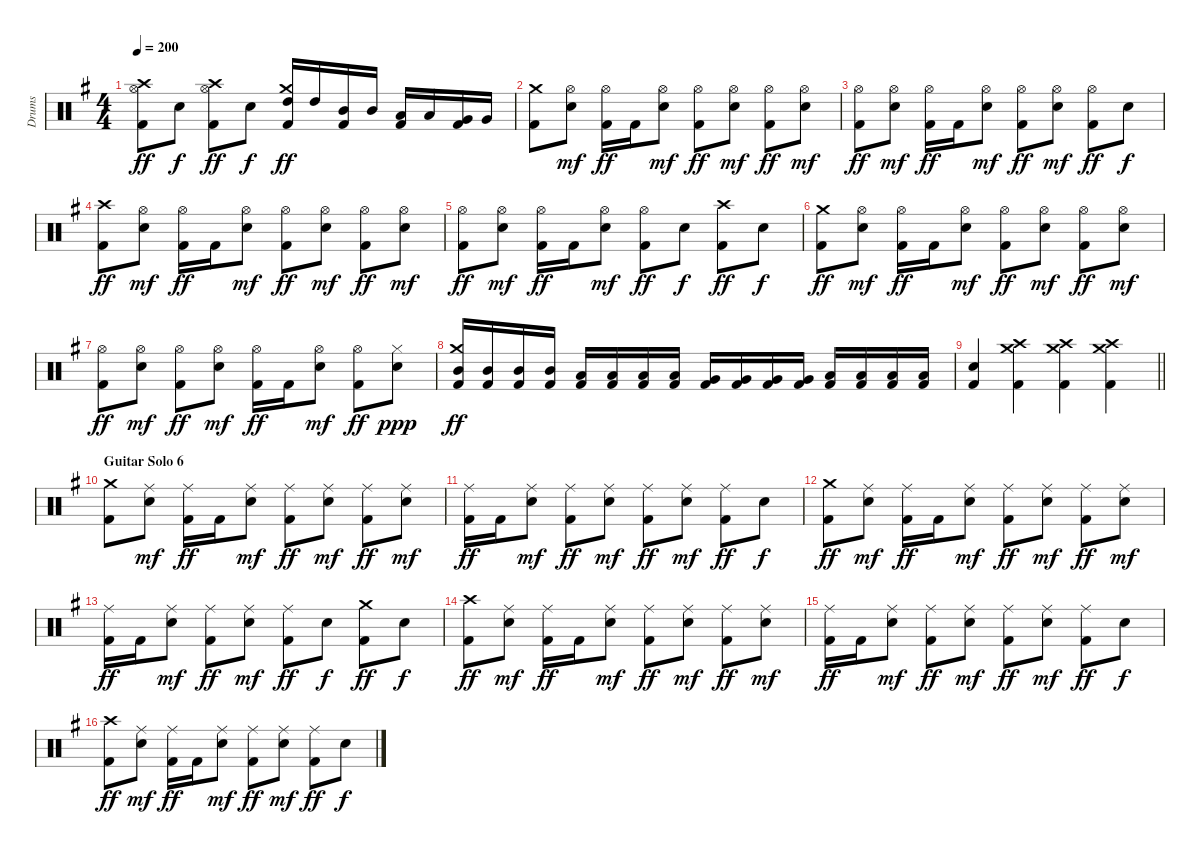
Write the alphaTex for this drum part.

\track ("Drums" "Drums") {instrument percussion}
\staff {score}
\articulation defaults
\ts (4 4)
\tempo 200
\clef neutral
\ks g
("Crash high (hit)" "Hi-Hat (open)" "Kick (hit) 2").8{dy ff} "Snare (hit) 2".8{dy f} ("Crash high (hit)" "Hi-Hat (open)" "Kick (hit) 2").8{dy ff} "Snare (hit) 2".8{dy f} ("Crash medium (hit)" "High Tom (hit)" "Kick (hit) 2").16{dy ff} "High Tom (hit)".16 ("Mid Tom (hit)" "Kick (hit) 2").16 "Mid Tom (hit)".16 ("Low Tom (hit)" "Kick (hit) 2").16 "Low Tom (hit)".16 ("Very Low Tom (hit)" "Kick (hit) 2").16 "Very Low Tom (hit)".16 |
("Crash medium (hit)" "Kick (hit) 2").8 ("Hi-Hat (open)" "Snare (hit) 2").8{dy mf} ("Hi-Hat (open)" "Kick (hit) 2").16{dy ff} "Kick (hit) 2".16 ("Hi-Hat (open)" "Snare (hit) 2").8{dy mf} ("Hi-Hat (open)" "Kick (hit) 2").8{dy ff} ("Hi-Hat (open)" "Snare (hit) 2").8{dy mf} ("Hi-Hat (open)" "Kick (hit) 2").8{dy ff} ("Hi-Hat (open)" "Snare (hit) 2").8{dy mf} |
("Hi-Hat (open)" "Kick (hit) 2").8{dy ff} ("Hi-Hat (open)" "Snare (hit) 2").8{dy mf} ("Hi-Hat (open)" "Kick (hit) 2").16{dy ff} "Kick (hit) 2".16 ("Hi-Hat (open)" "Snare (hit) 2").8{dy mf} ("Hi-Hat (open)" "Kick (hit) 2").8{dy ff} ("Hi-Hat (open)" "Snare (hit) 2").8{dy mf} ("Hi-Hat (open)" "Kick (hit) 2").8{dy ff} "Snare (hit) 2".8{dy f} |
("Crash high (hit)" "Kick (hit) 2").8{dy ff} ("Hi-Hat (open)" "Snare (hit) 2").8{dy mf} ("Hi-Hat (open)" "Kick (hit) 2").16{dy ff} "Kick (hit) 2".16 ("Hi-Hat (open)" "Snare (hit) 2").8{dy mf} ("Hi-Hat (open)" "Kick (hit) 2").8{dy ff} ("Hi-Hat (open)" "Snare (hit) 2").8{dy mf} ("Hi-Hat (open)" "Kick (hit) 2").8{dy ff} ("Hi-Hat (open)" "Snare (hit) 2").8{dy mf} |
("Hi-Hat (open)" "Kick (hit) 2").8{dy ff} ("Hi-Hat (open)" "Snare (hit) 2").8{dy mf} ("Hi-Hat (open)" "Kick (hit) 2").16{dy ff} "Kick (hit) 2".16 ("Hi-Hat (open)" "Snare (hit) 2").8{dy mf} ("Hi-Hat (open)" "Kick (hit) 2").8{dy ff} "Snare (hit) 2".8{dy f} ("Crash high (hit)" "Kick (hit) 2").8{dy ff} "Snare (hit) 2".8{dy f} |
("Crash medium (hit)" "Kick (hit) 2").8{dy ff} ("Hi-Hat (open)" "Snare (hit) 2").8{dy mf} ("Hi-Hat (open)" "Kick (hit) 2").16{dy ff} "Kick (hit) 2".16 ("Hi-Hat (open)" "Snare (hit) 2").8{dy mf} ("Hi-Hat (open)" "Kick (hit) 2").8{dy ff} ("Hi-Hat (open)" "Snare (hit) 2").8{dy mf} ("Hi-Hat (open)" "Kick (hit) 2").8{dy ff} ("Hi-Hat (open)" "Snare (hit) 2").8{dy mf} |
("Hi-Hat (open)" "Kick (hit) 2").8{dy ff} ("Hi-Hat (open)" "Snare (hit) 2").8{dy mf} ("Hi-Hat (open)" "Kick (hit) 2").8{dy ff} ("Hi-Hat (open)" "Snare (hit) 2").8{dy mf} ("Hi-Hat (open)" "Kick (hit) 2").16{dy ff} "Kick (hit) 2".16 ("Hi-Hat (open)" "Snare (hit) 2").8{dy mf} ("Hi-Hat (open)" "Kick (hit) 2").8{dy ff} ("Hi-Hat (closed)" "Snare (hit) 2").8{dy ppp} |
("Crash medium (hit)" "Mid Tom (hit)" "Kick (hit) 2").16{dy ff} ("Mid Tom (hit)" "Kick (hit) 2").16 ("Mid Tom (hit)" "Kick (hit) 2").16 ("Mid Tom (hit)" "Kick (hit) 2").16 ("Low Tom (hit)" "Kick (hit) 2").16 ("Low Tom (hit)" "Kick (hit) 2").16 ("Low Tom (hit)" "Kick (hit) 2").16 ("Low Tom (hit)" "Kick (hit) 2").16 ("Very Low Tom (hit)" "Kick (hit) 2").16 ("Very Low Tom (hit)" "Kick (hit) 2").16 ("Very Low Tom (hit)" "Kick (hit) 2").16 ("Very Low Tom (hit)" "Kick (hit) 2").16 ("Low Floor Tom (hit)" "Kick (hit) 2").16 ("Low Floor Tom (hit)" "Kick (hit) 2").16 ("Low Floor Tom (hit)" "Kick (hit) 2").16 ("Low Floor Tom (hit)" "Kick (hit) 2").16 |
\barLineRight lightlight
("Snare (hit) 2" "Kick (hit) 2").4 ("Crash medium (hit)" "Crash high (hit)" "Kick (hit) 2").4 ("Crash high (hit)" "Crash medium (hit)" "Kick (hit) 2").4 ("Crash medium (hit)" "Crash high (hit)" "Kick (hit) 2").4 |
\section ("" "Guitar Solo 6")
("Crash medium (hit)" "Kick (hit) 2").8 ("Ride (middle)" "Snare (hit) 2").8{dy mf} ("Ride (middle)" "Kick (hit) 2").16{dy ff} "Kick (hit) 2".16 ("Ride (middle)" "Snare (hit) 2").8{dy mf} ("Ride (middle)" "Kick (hit) 2").8{dy ff} ("Ride (middle)" "Snare (hit) 2").8{dy mf} ("Ride (middle)" "Kick (hit) 2").8{dy ff} ("Ride (middle)" "Snare (hit) 2").8{dy mf} |
("Ride (middle)" "Kick (hit) 2").16{dy ff} "Kick (hit) 2".16 ("Ride (middle)" "Snare (hit) 2").8{dy mf} ("Ride (middle)" "Kick (hit) 2").8{dy ff} ("Ride (middle)" "Snare (hit) 2").8{dy mf} ("Ride (middle)" "Kick (hit) 2").8{dy ff} ("Ride (middle)" "Snare (hit) 2").8{dy mf} ("Ride (middle)" "Kick (hit) 2").8{dy ff} "Snare (hit) 2".8{dy f} |
("Crash medium (hit)" "Kick (hit) 2").8{dy ff} ("Ride (middle)" "Snare (hit) 2").8{dy mf} ("Ride (middle)" "Kick (hit) 2").16{dy ff} "Kick (hit) 2".16 ("Ride (middle)" "Snare (hit) 2").8{dy mf} ("Ride (middle)" "Kick (hit) 2").8{dy ff} ("Ride (middle)" "Snare (hit) 2").8{dy mf} ("Ride (middle)" "Kick (hit) 2").8{dy ff} ("Ride (middle)" "Snare (hit) 2").8{dy mf} |
("Ride (middle)" "Kick (hit) 2").16{dy ff} "Kick (hit) 2".16 ("Ride (middle)" "Snare (hit) 2").8{dy mf} ("Ride (middle)" "Kick (hit) 2").8{dy ff} ("Ride (middle)" "Snare (hit) 2").8{dy mf} ("Ride (middle)" "Kick (hit) 2").8{dy ff} "Snare (hit) 2".8{dy f} ("Crash medium (hit)" "Kick (hit) 2").8{dy ff} "Snare (hit) 2".8{dy f} |
("Crash high (hit)" "Kick (hit) 2").8{dy ff} ("Ride (middle)" "Snare (hit) 2").8{dy mf} ("Ride (middle)" "Kick (hit) 2").16{dy ff} "Kick (hit) 2".16 ("Ride (middle)" "Snare (hit) 2").8{dy mf} ("Ride (middle)" "Kick (hit) 2").8{dy ff} ("Ride (middle)" "Snare (hit) 2").8{dy mf} ("Ride (middle)" "Kick (hit) 2").8{dy ff} ("Ride (middle)" "Snare (hit) 2").8{dy mf} |
("Ride (middle)" "Kick (hit) 2").16{dy ff} "Kick (hit) 2".16 ("Ride (middle)" "Snare (hit) 2").8{dy mf} ("Ride (middle)" "Kick (hit) 2").8{dy ff} ("Ride (middle)" "Snare (hit) 2").8{dy mf} ("Ride (middle)" "Kick (hit) 2").8{dy ff} ("Ride (middle)" "Snare (hit) 2").8{dy mf} ("Ride (middle)" "Kick (hit) 2").8{dy ff} "Snare (hit) 2".8{dy f} |
("Crash high (hit)" "Kick (hit) 2").8{dy ff} ("Ride (middle)" "Snare (hit) 2").8{dy mf} ("Ride (middle)" "Kick (hit) 2").16{dy ff} "Kick (hit) 2".16 ("Ride (middle)" "Snare (hit) 2").8{dy mf} ("Ride (middle)" "Kick (hit) 2").8{dy ff} ("Ride (middle)" "Snare (hit) 2").8{dy mf} ("Ride (middle)" "Kick (hit) 2").8{dy ff} "Snare (hit) 2".8{dy f}
